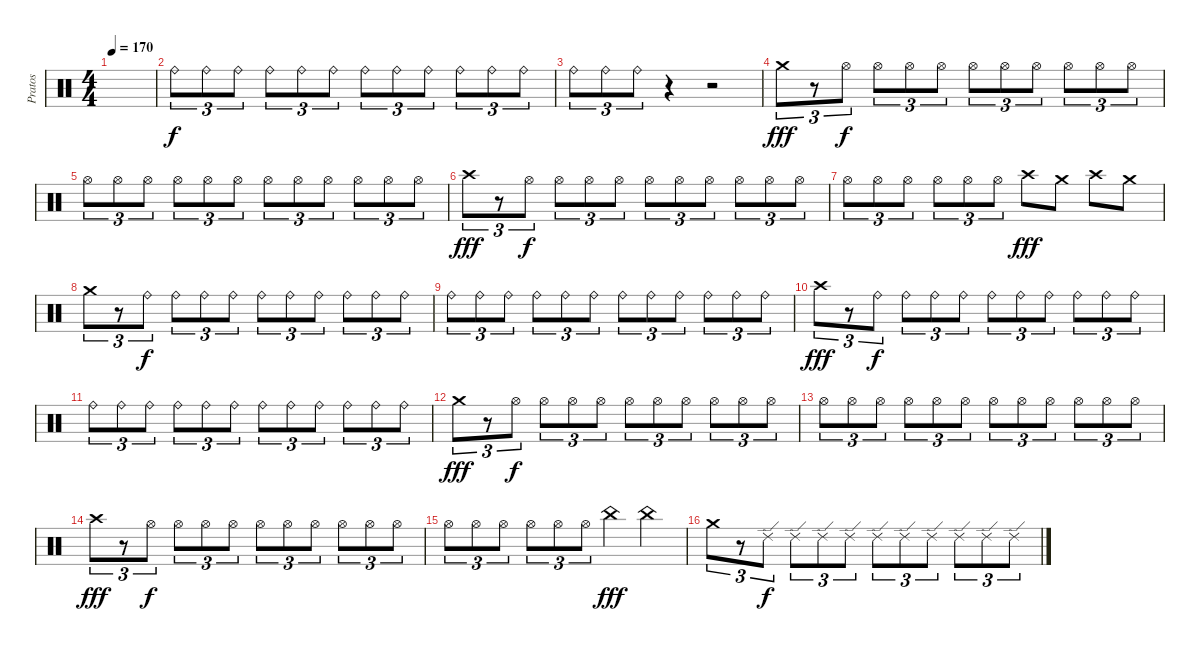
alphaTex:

\track ("Pratos" "Pratos") {instrument percussion}
\staff {score}
\articulation defaults
\ts (4 4)
\tempo 170
\clef neutral
\ks c
|
"Ride (bell)".8{tu (3 2)} "Ride (bell)".8{tu (3 2)} "Ride (bell)".8{tu (3 2)} "Ride (bell)".8{tu (3 2)} "Ride (bell)".8{tu (3 2)} "Ride (bell)".8{tu (3 2)} "Ride (bell)".8{tu (3 2)} "Ride (bell)".8{tu (3 2)} "Ride (bell)".8{tu (3 2)} "Ride (bell)".8{tu (3 2)} "Ride (bell)".8{tu (3 2)} "Ride (bell)".8{tu (3 2)} |
"Ride (bell)".8{tu (3 2)} "Ride (bell)".8{tu (3 2)} "Ride (bell)".8{tu (3 2)} r.4 r.2 |
"Crash medium (hit)".8{tu (3 2) dy fff} r.8{tu (3 2)} "Hi-Hat (open)".8{tu (3 2) dy f} "Hi-Hat (open)".8{tu (3 2)} "Hi-Hat (open)".8{tu (3 2)} "Hi-Hat (open)".8{tu (3 2)} "Hi-Hat (open)".8{tu (3 2)} "Hi-Hat (open)".8{tu (3 2)} "Hi-Hat (open)".8{tu (3 2)} "Hi-Hat (open)".8{tu (3 2)} "Hi-Hat (open)".8{tu (3 2)} "Hi-Hat (open)".8{tu (3 2)} |
"Hi-Hat (open)".8{tu (3 2)} "Hi-Hat (open)".8{tu (3 2)} "Hi-Hat (open)".8{tu (3 2)} "Hi-Hat (open)".8{tu (3 2)} "Hi-Hat (open)".8{tu (3 2)} "Hi-Hat (open)".8{tu (3 2)} "Hi-Hat (open)".8{tu (3 2)} "Hi-Hat (open)".8{tu (3 2)} "Hi-Hat (open)".8{tu (3 2)} "Hi-Hat (open)".8{tu (3 2)} "Hi-Hat (open)".8{tu (3 2)} "Hi-Hat (open)".8{tu (3 2)} |
"Crash high (hit)".8{tu (3 2) dy fff} r.8{tu (3 2)} "Hi-Hat (open)".8{tu (3 2) dy f} "Hi-Hat (open)".8{tu (3 2)} "Hi-Hat (open)".8{tu (3 2)} "Hi-Hat (open)".8{tu (3 2)} "Hi-Hat (open)".8{tu (3 2)} "Hi-Hat (open)".8{tu (3 2)} "Hi-Hat (open)".8{tu (3 2)} "Hi-Hat (open)".8{tu (3 2)} "Hi-Hat (open)".8{tu (3 2)} "Hi-Hat (open)".8{tu (3 2)} |
"Hi-Hat (open)".8{tu (3 2)} "Hi-Hat (open)".8{tu (3 2)} "Hi-Hat (open)".8{tu (3 2)} "Hi-Hat (open)".8{tu (3 2)} "Hi-Hat (open)".8{tu (3 2)} "Hi-Hat (open)".8{tu (3 2)} "Crash high (hit)".8{dy fff} "Crash medium (hit)".8 "Crash high (hit)".8 "Crash medium (hit)".8 |
"Crash medium (hit)".8{tu (3 2)} r.8{tu (3 2)} "Ride (bell)".8{tu (3 2) dy f} "Ride (bell)".8{tu (3 2)} "Ride (bell)".8{tu (3 2)} "Ride (bell)".8{tu (3 2)} "Ride (bell)".8{tu (3 2)} "Ride (bell)".8{tu (3 2)} "Ride (bell)".8{tu (3 2)} "Ride (bell)".8{tu (3 2)} "Ride (bell)".8{tu (3 2)} "Ride (bell)".8{tu (3 2)} |
"Ride (bell)".8{tu (3 2)} "Ride (bell)".8{tu (3 2)} "Ride (bell)".8{tu (3 2)} "Ride (bell)".8{tu (3 2)} "Ride (bell)".8{tu (3 2)} "Ride (bell)".8{tu (3 2)} "Ride (bell)".8{tu (3 2)} "Ride (bell)".8{tu (3 2)} "Ride (bell)".8{tu (3 2)} "Ride (bell)".8{tu (3 2)} "Ride (bell)".8{tu (3 2)} "Ride (bell)".8{tu (3 2)} |
"Crash high (hit)".8{tu (3 2) dy fff} r.8{tu (3 2)} "Ride (bell)".8{tu (3 2) dy f} "Ride (bell)".8{tu (3 2)} "Ride (bell)".8{tu (3 2)} "Ride (bell)".8{tu (3 2)} "Ride (bell)".8{tu (3 2)} "Ride (bell)".8{tu (3 2)} "Ride (bell)".8{tu (3 2)} "Ride (bell)".8{tu (3 2)} "Ride (bell)".8{tu (3 2)} "Ride (bell)".8{tu (3 2)} |
"Ride (bell)".8{tu (3 2)} "Ride (bell)".8{tu (3 2)} "Ride (bell)".8{tu (3 2)} "Ride (bell)".8{tu (3 2)} "Ride (bell)".8{tu (3 2)} "Ride (bell)".8{tu (3 2)} "Ride (bell)".8{tu (3 2)} "Ride (bell)".8{tu (3 2)} "Ride (bell)".8{tu (3 2)} "Ride (bell)".8{tu (3 2)} "Ride (bell)".8{tu (3 2)} "Ride (bell)".8{tu (3 2)} |
"Crash medium (hit)".8{tu (3 2) dy fff} r.8{tu (3 2)} "Hi-Hat (open)".8{tu (3 2) dy f} "Hi-Hat (open)".8{tu (3 2)} "Hi-Hat (open)".8{tu (3 2)} "Hi-Hat (open)".8{tu (3 2)} "Hi-Hat (open)".8{tu (3 2)} "Hi-Hat (open)".8{tu (3 2)} "Hi-Hat (open)".8{tu (3 2)} "Hi-Hat (open)".8{tu (3 2)} "Hi-Hat (open)".8{tu (3 2)} "Hi-Hat (open)".8{tu (3 2)} |
"Hi-Hat (open)".8{tu (3 2)} "Hi-Hat (open)".8{tu (3 2)} "Hi-Hat (open)".8{tu (3 2)} "Hi-Hat (open)".8{tu (3 2)} "Hi-Hat (open)".8{tu (3 2)} "Hi-Hat (open)".8{tu (3 2)} "Hi-Hat (open)".8{tu (3 2)} "Hi-Hat (open)".8{tu (3 2)} "Hi-Hat (open)".8{tu (3 2)} "Hi-Hat (open)".8{tu (3 2)} "Hi-Hat (open)".8{tu (3 2)} "Hi-Hat (open)".8{tu (3 2)} |
"Crash high (hit)".8{tu (3 2) dy fff} r.8{tu (3 2)} "Hi-Hat (open)".8{tu (3 2) dy f} "Hi-Hat (open)".8{tu (3 2)} "Hi-Hat (open)".8{tu (3 2)} "Hi-Hat (open)".8{tu (3 2)} "Hi-Hat (open)".8{tu (3 2)} "Hi-Hat (open)".8{tu (3 2)} "Hi-Hat (open)".8{tu (3 2)} "Hi-Hat (open)".8{tu (3 2)} "Hi-Hat (open)".8{tu (3 2)} "Hi-Hat (open)".8{tu (3 2)} |
"Hi-Hat (open)".8{tu (3 2)} "Hi-Hat (open)".8{tu (3 2)} "Hi-Hat (open)".8{tu (3 2)} "Hi-Hat (open)".8{tu (3 2)} "Hi-Hat (open)".8{tu (3 2)} "Hi-Hat (open)".8{tu (3 2)} "China (hit)".4{dy fff} "China (hit)".4 |
"Crash medium (hit)".8{tu (3 2)} r.8{tu (3 2)} "Ride (edge) 2".8{tu (3 2) dy f} "Ride (edge) 2".8{tu (3 2)} "Ride (edge) 2".8{tu (3 2)} "Ride (edge) 2".8{tu (3 2)} "Ride (edge) 2".8{tu (3 2)} "Ride (edge) 2".8{tu (3 2)} "Ride (edge) 2".8{tu (3 2)} "Ride (edge) 2".8{tu (3 2)} "Ride (edge) 2".8{tu (3 2)} "Ride (edge) 2".8{tu (3 2)}
